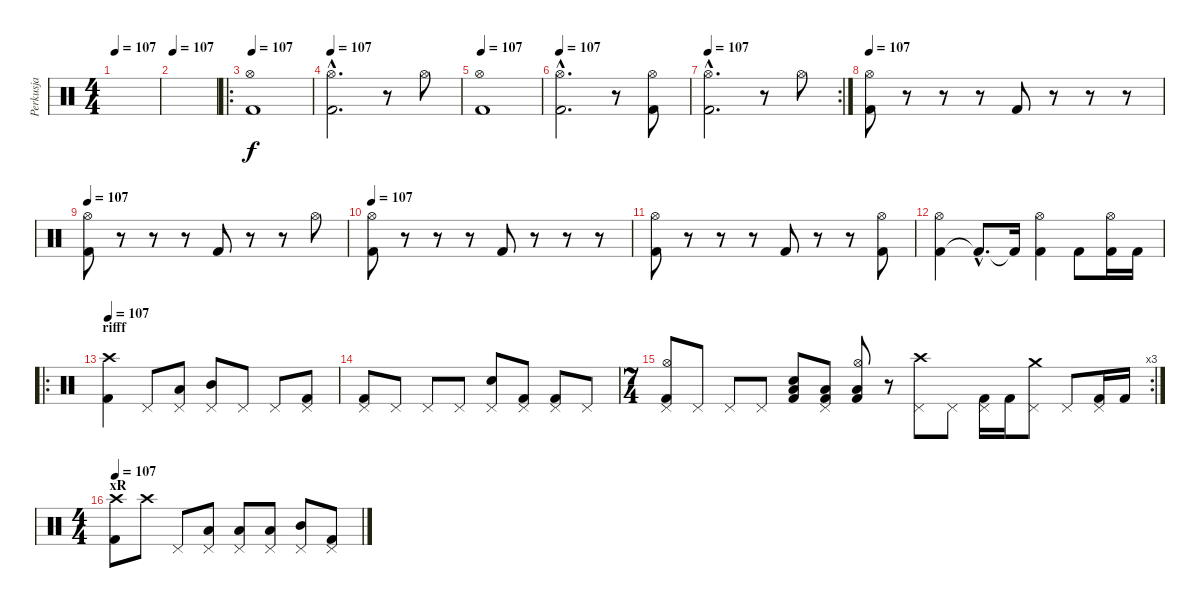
\track ("Perkusja" "Perkusja") {instrument percussion}
\staff {score}
\articulation defaults
\ts (4 4)
\tempo 107
\clef neutral
\ks c
|
\tempo 107
|
\ro
\tempo 107
("Kick (hit) 2" "Hi-Hat (open)").1 |
\tempo 107
("Kick (hit) 2"{hac} "Hi-Hat (open)"{hac}).2{d} r.8 "Hi-Hat (open)".8 |
\tempo 107
("Kick (hit) 2" "Hi-Hat (open)").1 |
\tempo 107
("Kick (hit) 2"{hac} "Hi-Hat (open)"{hac}).2{d} r.8 ("Kick (hit) 2" "Hi-Hat (open)").8 |
\rc 2
\tempo 107
("Kick (hit) 2"{hac} "Hi-Hat (open)"{hac}).2{d} r.8 "Hi-Hat (open)".8 |
\tempo 107
("Kick (hit) 2" "Hi-Hat (open)").8 r.8 r.8 r.8 "Kick (hit) 2".8 r.8 r.8 r.8 |
\tempo 107
("Kick (hit) 2" "Hi-Hat (open)").8 r.8 r.8 r.8 "Kick (hit) 2".8 r.8 r.8 "Hi-Hat (open)".8 |
\tempo 107
("Kick (hit) 2" "Hi-Hat (open)").8 r.8 r.8 r.8 "Kick (hit) 2".8 r.8 r.8 r.8 |
("Kick (hit) 2" "Hi-Hat (open)").8 r.8 r.8 r.8 "Kick (hit) 2".8 r.8 r.8 ("Kick (hit) 2" "Hi-Hat (open)").8 |
("Kick (hit) 2" "Hi-Hat (open)").4 "Kick (hit) 2"{hac t}.8{d} "Kick (hit) 2"{t}.16 ("Kick (hit) 2" "Hi-Hat (open)").4 "Kick (hit) 2".8 ("Kick (hit) 2" "Hi-Hat (open)").16 "Kick (hit) 2".16 |
\ro
\section ("" "rifff")
\tempo 107
("Kick (hit) 2" "Crash high (hit)").4 "Pedal Hi-Hat (hit)".8 ("Pedal Hi-Hat (hit)" "Low Tom (hit)").8 ("Pedal Hi-Hat (hit)" "Mid Tom (hit)").8 "Pedal Hi-Hat (hit)".8 "Pedal Hi-Hat (hit)".8 ("Pedal Hi-Hat (hit)" "Kick (hit) 2").8 |
("Pedal Hi-Hat (hit)" "Kick (hit) 2").8 "Pedal Hi-Hat (hit)".8 "Pedal Hi-Hat (hit)".8 "Pedal Hi-Hat (hit)".8 ("Pedal Hi-Hat (hit)" "Snare (hit) 2").8 ("Pedal Hi-Hat (hit)" "Kick (hit) 2").8 ("Pedal Hi-Hat (hit)" "Kick (hit) 2").8 "Pedal Hi-Hat (hit)".8 |
\rc 3
\ts (7 4)
("Pedal Hi-Hat (hit)" "Kick (hit) 2" "Hi-Hat (open)").8 "Pedal Hi-Hat (hit)".8 "Pedal Hi-Hat (hit)".8 "Pedal Hi-Hat (hit)".8 ("Kick (hit) 2" "Low Tom (hit)" "Snare (hit) 2").8 ("Pedal Hi-Hat (hit)" "Kick (hit) 2" "Low Tom (hit)").8 ("Kick (hit) 2" "Low Tom (hit)" "Hi-Hat (open)").8 r.8 ("Pedal Hi-Hat (hit)" "Crash high (hit)").8 "Pedal Hi-Hat (hit)".8 ("Pedal Hi-Hat (hit)" "Kick (hit) 2").16 "Kick (hit) 2".16 ("Pedal Hi-Hat (hit)" "Crash medium (hit)").8 "Pedal Hi-Hat (hit)".8 ("Pedal Hi-Hat (hit)" "Kick (hit) 2").16 "Kick (hit) 2".16 |
\ts (4 4)
\section ("" "xR")
\tempo 107
("Kick (hit) 2" "Crash high (hit)").8 "Crash high (hit)".8 "Pedal Hi-Hat (hit)".8 ("Pedal Hi-Hat (hit)" "Low Tom (hit)").8 ("Pedal Hi-Hat (hit)" "Low Tom (hit)").8 ("Pedal Hi-Hat (hit)" "Low Tom (hit)").8 ("Pedal Hi-Hat (hit)" "Mid Tom (hit)").8 ("Pedal Hi-Hat (hit)" "Kick (hit) 2").8
